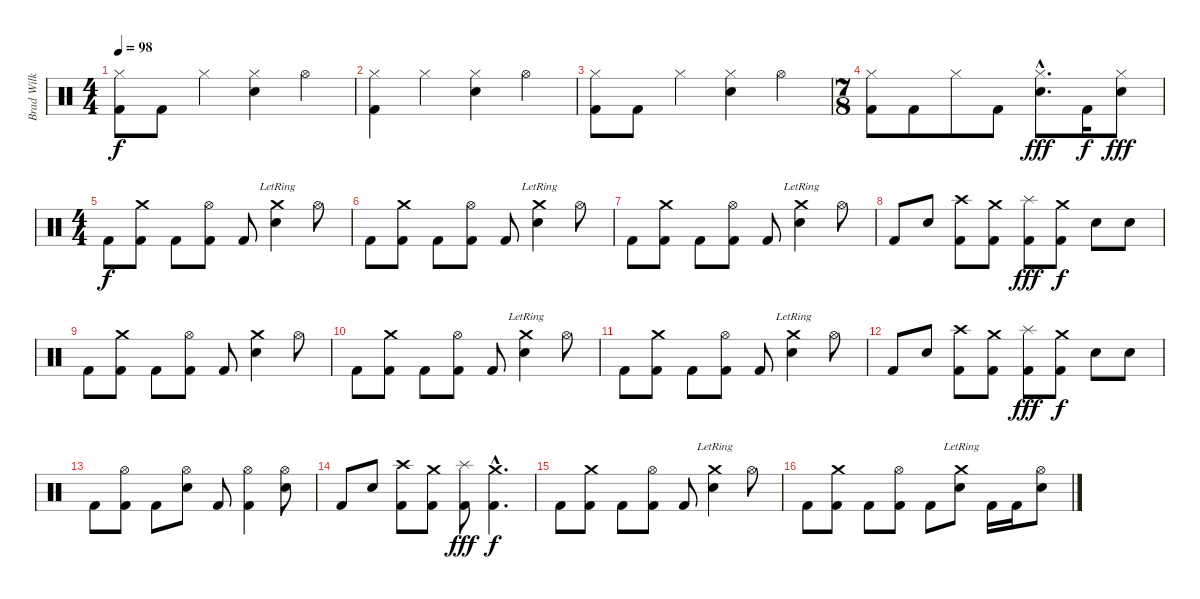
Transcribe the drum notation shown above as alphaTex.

\track ("Brad Wilk" "Brad Wilk") {instrument percussion}
\staff {score}
\articulation defaults
\ts (4 4)
\tempo 98
\clef neutral
\ks c
("Hi-Hat (closed)" "Kick (hit) 2").8{dy f} "Kick (hit) 2".8 "Hi-Hat (closed)".4 ("Hi-Hat (closed)" "Electric Snare (hit)").4 "Hi-Hat (open)".4 |
("Hi-Hat (closed)" "Kick (hit) 2").4 "Hi-Hat (closed)".4 ("Hi-Hat (closed)" "Electric Snare (hit)").4 "Hi-Hat (open)".4 |
("Hi-Hat (closed)" "Kick (hit) 2").8 "Kick (hit) 2".8 "Hi-Hat (closed)".4 ("Hi-Hat (closed)" "Electric Snare (hit)").4 "Hi-Hat (open)".4 |
\ts (7 8)
("Hi-Hat (closed)" "Kick (hit) 2").8 "Kick (hit) 2".8 "Hi-Hat (closed)".8 "Kick (hit) 2".8 ("Hi-Hat (closed)"{hac} "Electric Snare (hit)"{hac}).8{d dy fff} "Kick (hit) 2".16{dy f} ("Hi-Hat (closed)" "Electric Snare (hit)").8{dy fff} |
\ts (4 4)
"Kick (hit) 2".8{dy f} ("Crash medium (hit)" "Kick (hit) 2").8 "Kick (hit) 2".8 ("Hi-Hat (open)" "Kick (hit) 2").8 "Kick (hit) 2".8 ("Crash medium (hit)" "Electric Snare (hit)"{lr}).4 "Hi-Hat (open)".8 |
"Kick (hit) 2".8 ("Crash medium (hit)" "Kick (hit) 2").8 "Kick (hit) 2".8 ("Hi-Hat (open)" "Kick (hit) 2").8 "Kick (hit) 2".8 ("Crash medium (hit)" "Electric Snare (hit)"{lr}).4 "Hi-Hat (open)".8 |
"Kick (hit) 2".8 ("Crash medium (hit)" "Kick (hit) 2").8 "Kick (hit) 2".8 ("Hi-Hat (open)" "Kick (hit) 2").8 "Kick (hit) 2".8 ("Crash medium (hit)" "Electric Snare (hit)"{lr}).4 "Hi-Hat (open)".8 |
"Kick (hit) 2".8 "Electric Snare (hit)".8 ("Crash high (hit)" "Kick (hit) 2").8 ("Crash medium (hit)" "Kick (hit) 2").8 ("Splash (hit)" "Kick (hit) 2").8{dy fff} ("Crash medium (hit)" "Kick (hit) 2").8{dy f} "Electric Snare (hit)".8 "Electric Snare (hit)".8 |
"Kick (hit) 2".8 ("Crash medium (hit)" "Kick (hit) 2").8 "Kick (hit) 2".8 ("Hi-Hat (open)" "Kick (hit) 2").8 "Kick (hit) 2".8 ("Crash medium (hit)" "Electric Snare (hit)").4 "Hi-Hat (open)".8 |
"Kick (hit) 2".8 ("Crash medium (hit)" "Kick (hit) 2").8 "Kick (hit) 2".8 ("Hi-Hat (open)" "Kick (hit) 2").8 "Kick (hit) 2".8 ("Crash medium (hit)" "Electric Snare (hit)"{lr}).4 "Hi-Hat (open)".8 |
"Kick (hit) 2".8 ("Crash medium (hit)" "Kick (hit) 2").8 "Kick (hit) 2".8 ("Hi-Hat (open)" "Kick (hit) 2").8 "Kick (hit) 2".8 ("Crash medium (hit)" "Electric Snare (hit)"{lr}).4 "Hi-Hat (open)".8 |
"Kick (hit) 2".8 "Electric Snare (hit)".8 ("Crash high (hit)" "Kick (hit) 2").8 ("Crash medium (hit)" "Kick (hit) 2").8 ("Splash (hit)" "Kick (hit) 2").8{dy fff} ("Crash medium (hit)" "Kick (hit) 2").8{dy f} "Electric Snare (hit)".8 "Electric Snare (hit)".8 |
"Kick (hit) 2".8 ("Hi-Hat (open)" "Kick (hit) 2").8 "Kick (hit) 2".8 ("Hi-Hat (open)" "Electric Snare (hit)").8 "Kick (hit) 2".8 ("Hi-Hat (open)" "Kick (hit) 2").4 ("Hi-Hat (open)" "Electric Snare (hit)").8 |
"Kick (hit) 2".8 "Electric Snare (hit)".8 ("Crash high (hit)" "Kick (hit) 2").8 ("Crash medium (hit)" "Kick (hit) 2").8 ("Splash (hit)" "Kick (hit) 2").8{dy fff} ("Crash medium (hit)"{hac} "Kick (hit) 2"{hac}).4{d dy f} |
"Kick (hit) 2".8 ("Crash medium (hit)" "Kick (hit) 2").8 "Kick (hit) 2".8 ("Hi-Hat (open)" "Kick (hit) 2").8 "Kick (hit) 2".8 ("Crash medium (hit)" "Electric Snare (hit)"{lr}).4 "Hi-Hat (open)".8 |
"Kick (hit) 2".8 ("Crash medium (hit)" "Kick (hit) 2").8 "Kick (hit) 2".8 ("Hi-Hat (open)" "Kick (hit) 2").8 "Kick (hit) 2".8 ("Crash medium (hit)" "Electric Snare (hit)"{lr}).8 "Kick (hit) 2".16 "Kick (hit) 2".16 ("Hi-Hat (open)" "Electric Snare (hit)").8
